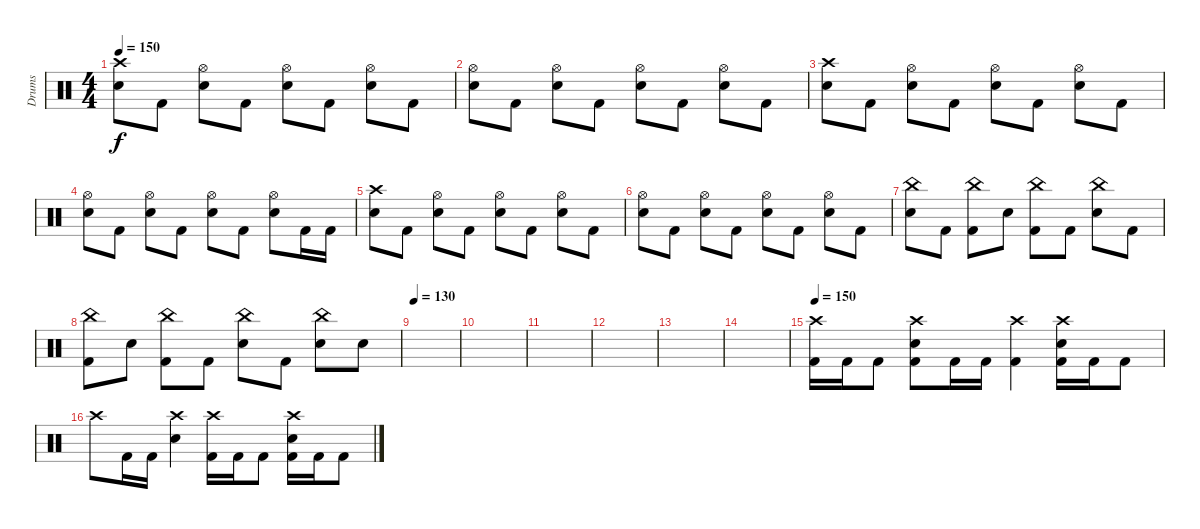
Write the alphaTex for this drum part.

\track ("Drums" "Drums") {instrument percussion}
\staff {score}
\articulation defaults
\ts (4 4)
\tempo 150
\clef neutral
\ks c
("Crash high (hit)" "Electric Snare (hit)").8{dy f} "Kick (hit) 2".8 ("Hi-Hat (open)" "Electric Snare (hit)").8 "Kick (hit) 2".8 ("Hi-Hat (open)" "Electric Snare (hit)").8 "Kick (hit) 2".8 ("Hi-Hat (open)" "Electric Snare (hit)").8 "Kick (hit) 2".8 |
("Hi-Hat (open)" "Electric Snare (hit)").8 "Kick (hit) 2".8 ("Hi-Hat (open)" "Electric Snare (hit)").8 "Kick (hit) 2".8 ("Hi-Hat (open)" "Electric Snare (hit)").8 "Kick (hit) 2".8 ("Hi-Hat (open)" "Electric Snare (hit)").8 "Kick (hit) 2".8 |
("Crash high (hit)" "Electric Snare (hit)").8 "Kick (hit) 2".8 ("Hi-Hat (open)" "Electric Snare (hit)").8 "Kick (hit) 2".8 ("Hi-Hat (open)" "Electric Snare (hit)").8 "Kick (hit) 2".8 ("Hi-Hat (open)" "Electric Snare (hit)").8 "Kick (hit) 2".8 |
("Hi-Hat (open)" "Electric Snare (hit)").8 "Kick (hit) 2".8 ("Hi-Hat (open)" "Electric Snare (hit)").8 "Kick (hit) 2".8 ("Hi-Hat (open)" "Electric Snare (hit)").8 "Kick (hit) 2".8 ("Hi-Hat (open)" "Electric Snare (hit)").8 "Kick (hit) 2".16 "Kick (hit) 2".16 |
("Crash high (hit)" "Electric Snare (hit)").8 "Kick (hit) 2".8 ("Hi-Hat (open)" "Electric Snare (hit)").8 "Kick (hit) 2".8 ("Hi-Hat (open)" "Electric Snare (hit)").8 "Kick (hit) 2".8 ("Hi-Hat (open)" "Electric Snare (hit)").8 "Kick (hit) 2".8 |
("Hi-Hat (open)" "Electric Snare (hit)").8 "Kick (hit) 2".8 ("Hi-Hat (open)" "Electric Snare (hit)").8 "Kick (hit) 2".8 ("Hi-Hat (open)" "Electric Snare (hit)").8 "Kick (hit) 2".8 ("Hi-Hat (open)" "Electric Snare (hit)").8 "Kick (hit) 2".8 |
("China (hit)" "Electric Snare (hit)").8 "Kick (hit) 2".8 ("China (hit)" "Kick (hit) 2").8 "Electric Snare (hit)".8 ("China (hit)" "Kick (hit) 2").8 "Kick (hit) 2".8 ("China (hit)" "Electric Snare (hit)").8 "Kick (hit) 2".8 |
("China (hit)" "Kick (hit) 2").8 "Electric Snare (hit)".8 ("China (hit)" "Kick (hit) 2").8 "Kick (hit) 2".8 ("Electric Snare (hit)" "China (hit)").8 "Kick (hit) 2".8 ("China (hit)" "Electric Snare (hit)").8 "Electric Snare (hit)".8 |
\tempo 130
|
|
|
|
|
|
\tempo 150
("Crash high (hit)" "Kick (hit) 2").16 "Kick (hit) 2".16 "Kick (hit) 2".8 ("Kick (hit) 2" "Crash high (hit)" "Electric Snare (hit)").8 "Kick (hit) 2".16 "Kick (hit) 2".16 ("Crash high (hit)" "Kick (hit) 2").4 ("Kick (hit) 2" "Crash high (hit)" "Electric Snare (hit)").16 "Kick (hit) 2".16 "Kick (hit) 2".8 |
"Crash high (hit)".8 "Kick (hit) 2".16 "Kick (hit) 2".16 ("Crash high (hit)" "Electric Snare (hit)").4 ("Crash high (hit)" "Kick (hit) 2").16 "Kick (hit) 2".16 "Kick (hit) 2".8 ("Kick (hit) 2" "Crash high (hit)" "Electric Snare (hit)").16 "Kick (hit) 2".16 "Kick (hit) 2".8
